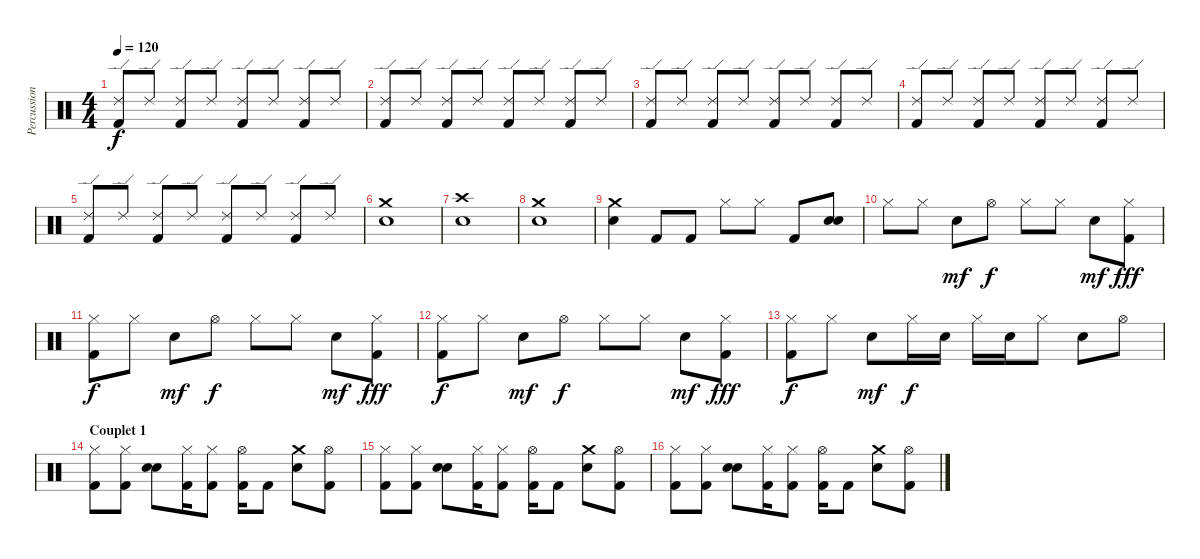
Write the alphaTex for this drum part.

\track ("Percussions" "Percussion") {instrument percussion}
\staff {score}
\articulation defaults
\ts (4 4)
\tempo 120
\clef neutral
\ks c
("Ride (edge) 2" "Kick (hit) 2").8{dy f} "Ride (edge) 2".8 ("Ride (edge) 2" "Kick (hit) 2").8 "Ride (edge) 2".8 ("Ride (edge) 2" "Kick (hit) 2").8 "Ride (edge) 2".8 ("Ride (edge) 2" "Kick (hit) 2").8 "Ride (edge) 2".8 |
("Ride (edge) 2" "Kick (hit) 2").8 "Ride (edge) 2".8 ("Ride (edge) 2" "Kick (hit) 2").8 "Ride (edge) 2".8 ("Ride (edge) 2" "Kick (hit) 2").8 "Ride (edge) 2".8 ("Ride (edge) 2" "Kick (hit) 2").8 "Ride (edge) 2".8 |
("Ride (edge) 2" "Kick (hit) 2").8 "Ride (edge) 2".8 ("Ride (edge) 2" "Kick (hit) 2").8 "Ride (edge) 2".8 ("Ride (edge) 2" "Kick (hit) 2").8 "Ride (edge) 2".8 ("Ride (edge) 2" "Kick (hit) 2").8 "Ride (edge) 2".8 |
("Ride (edge) 2" "Kick (hit) 2").8 "Ride (edge) 2".8 ("Ride (edge) 2" "Kick (hit) 2").8 "Ride (edge) 2".8 ("Ride (edge) 2" "Kick (hit) 2").8 "Ride (edge) 2".8 ("Ride (edge) 2" "Kick (hit) 2").8 "Ride (edge) 2".8 |
("Ride (edge) 2" "Kick (hit) 2").8 "Ride (edge) 2".8 ("Ride (edge) 2" "Kick (hit) 2").8 "Ride (edge) 2".8 ("Ride (edge) 2" "Kick (hit) 2").8 "Ride (edge) 2".8 ("Ride (edge) 2" "Kick (hit) 2").8 "Ride (edge) 2".8 |
("Crash medium (hit)" "Snare (hit) 2").1 |
("Crash high (hit)" "Snare (hit) 2").1 |
("Crash medium (hit)" "Snare (hit) 2").1 |
("Crash medium (hit)" "Snare (hit) 2").4 "Kick (hit) 2".8 "Kick (hit) 2".8 "Hi-Hat (closed)".8 "Hi-Hat (closed)".8 "Kick (hit) 2".8 ("Snare (hit) 2" "Snare (hit) 2").8 |
"Hi-Hat (closed)".8 "Hi-Hat (closed)".8 "Snare (hit) 2".8{dy mf} "Hi-Hat (open)".8{dy f} "Hi-Hat (closed)".8 "Hi-Hat (closed)".8 "Snare (hit) 2".8{dy mf} ("Hi-Hat (closed)" "Kick (hit) 2").8{dy fff} |
("Hi-Hat (closed)" "Kick (hit) 2").8{dy f} "Hi-Hat (closed)".8 "Snare (hit) 2".8{dy mf} "Hi-Hat (open)".8{dy f} "Hi-Hat (closed)".8 "Hi-Hat (closed)".8 "Snare (hit) 2".8{dy mf} ("Hi-Hat (closed)" "Kick (hit) 2").8{dy fff} |
("Hi-Hat (closed)" "Kick (hit) 2").8{dy f} "Hi-Hat (closed)".8 "Snare (hit) 2".8{dy mf} "Hi-Hat (open)".8{dy f} "Hi-Hat (closed)".8 "Hi-Hat (closed)".8 "Snare (hit) 2".8{dy mf} ("Hi-Hat (closed)" "Kick (hit) 2").8{dy fff} |
("Hi-Hat (closed)" "Kick (hit) 2").8{dy f} "Hi-Hat (closed)".8 "Snare (hit) 2".8{dy mf} "Hi-Hat (closed)".16{dy f} "Snare (hit) 2".16 "Hi-Hat (closed)".16 "Snare (hit) 2".16 "Hi-Hat (closed)".8 "Snare (hit) 2".8 "Hi-Hat (open)".8 |
\section ("" "Couplet 1")
("Hi-Hat (closed)" "Kick (hit) 2").8 ("Hi-Hat (closed)" "Kick (hit) 2").8 ("Snare (hit) 2" "Snare (hit) 2").8 ("Hi-Hat (closed)" "Kick (hit) 2").16 ("Hi-Hat (closed)" "Kick (hit) 2").8 ("Hi-Hat (open)" "Kick (hit) 2").16 "Kick (hit) 2".8 ("Crash medium (hit)" "Snare (hit) 2").8 ("Hi-Hat (open)" "Kick (hit) 2").8 |
("Hi-Hat (closed)" "Kick (hit) 2").8 ("Hi-Hat (closed)" "Kick (hit) 2").8 ("Snare (hit) 2" "Snare (hit) 2").8 ("Hi-Hat (closed)" "Kick (hit) 2").16 ("Hi-Hat (closed)" "Kick (hit) 2").8 ("Hi-Hat (open)" "Kick (hit) 2").16 "Kick (hit) 2".8 ("Crash medium (hit)" "Snare (hit) 2").8 ("Hi-Hat (open)" "Kick (hit) 2").8 |
("Hi-Hat (closed)" "Kick (hit) 2").8 ("Hi-Hat (closed)" "Kick (hit) 2").8 ("Snare (hit) 2" "Snare (hit) 2").8 ("Hi-Hat (closed)" "Kick (hit) 2").16 ("Hi-Hat (closed)" "Kick (hit) 2").8 ("Hi-Hat (open)" "Kick (hit) 2").16 "Kick (hit) 2".8 ("Crash medium (hit)" "Snare (hit) 2").8 ("Hi-Hat (open)" "Kick (hit) 2").8
